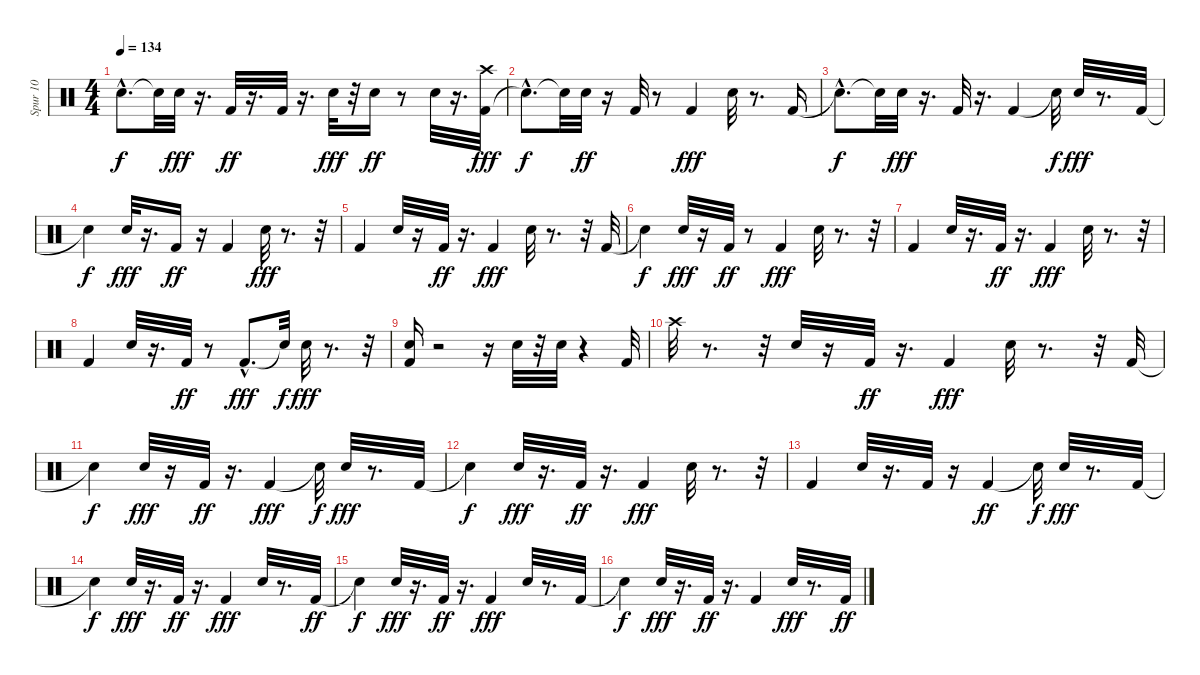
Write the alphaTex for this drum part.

\track ("Spur 10" "Spur 10") {instrument percussion}
\staff {score}
\articulation defaults
\ts (4 4)
\tempo 134
\clef neutral
\ks c "Snare (hit)"{hac t}.8{d dy f} "Snare (hit)"{t}.32 "Electric Snare (hit)".32{dy fff}
r.16{d} "Kick (hit) 2".32{dy ff} r.16{d} "Kick (hit) 2".32 r.16{d} "Electric Snare (hit)".32{dy fff} r.32 "Electric Snare (hit)".16{dy ff} r.8 "Electric Snare (hit)".32 r.16{d} ("Kick (hit) 2" "Crash high (hit)").32{dy fff} |
"Snare (hit)"{hac t}.8{d dy f} "Snare (hit)"{t}.32 "Electric Snare (hit)".32{dy ff} r.16 "Kick (hit) 2".32 r.8 "Kick (hit) 2".4{dy fff} "Electric Snare (hit)".32 r.8{d} "Kick (hit) 2".16 |
"Snare (hit)"{hac t}.8{d dy f} "Snare (hit)"{t}.32 "Electric Snare (hit)".32{dy fff} r.16{d} "Kick (hit) 2".32 r.16{d} "Kick (hit) 2".4 "Snare (hit)"{t}.32{dy f} "Electric Snare (hit)".32{dy fff} r.8{d} "Kick (hit) 2".32 |
"Snare (hit)"{t}.4{dy f} "Electric Snare (hit)".32{dy fff} r.16{d} "Kick (hit) 2".16{dy ff} r.16 "Kick (hit) 2".4 "Electric Snare (hit)".32{dy fff} r.8{d} r.32 |
"Kick (hit) 2".4 "Electric Snare (hit)".32 r.16 "Kick (hit) 2".32{dy ff} r.16{d} "Kick (hit) 2".4{dy fff} "Electric Snare (hit)".32 r.8{d} r.32 "Kick (hit) 2".32 |
"Snare (hit)"{t}.4{dy f} "Electric Snare (hit)".32{dy fff} r.16 "Kick (hit) 2".32{dy ff} r.8 "Kick (hit) 2".4{dy fff} "Electric Snare (hit)".32 r.8{d} r.32 |
"Kick (hit) 2".4 "Electric Snare (hit)".32 r.16{d} "Kick (hit) 2".32{dy ff} r.16{d} "Kick (hit) 2".4{dy fff} "Electric Snare (hit)".32 r.8{d} r.32 |
"Kick (hit) 2".4 "Electric Snare (hit)".32 r.16{d} "Kick (hit) 2".32{dy ff} r.8 "Kick (hit) 2"{hac}.8{d dy fff} "Snare (hit)"{t}.32{dy f} "Electric Snare (hit)".32{dy fff} r.8{d} r.32 |
("Kick (hit) 2" "Electric Snare (hit)").16 r.2 r.16 "Electric Snare (hit)".32 r.32 "Electric Snare (hit)".32 r.4 "Kick (hit) 2".32 |
"Crash high (hit)".32 r.8{d} r.32 "Electric Snare (hit)".32 r.16 "Kick (hit) 2".32{dy ff} r.16{d} "Kick (hit) 2".4{dy fff} "Electric Snare (hit)".32 r.8{d} r.32 "Kick (hit) 2".32 |
"Snare (hit)"{t}.4{dy f} "Electric Snare (hit)".32{dy fff} r.16 "Kick (hit) 2".32{dy ff} r.16{d} "Kick (hit) 2".4{dy fff} "Snare (hit)"{t}.32{dy f} "Electric Snare (hit)".32{dy fff} r.8{d} "Kick (hit) 2".32 |
"Snare (hit)"{t}.4{dy f} "Electric Snare (hit)".32{dy fff} r.16{d} "Kick (hit) 2".32{dy ff} r.16{d} "Kick (hit) 2".4{dy fff} "Electric Snare (hit)".32 r.8{d} r.32 |
"Kick (hit) 2".4 "Electric Snare (hit)".32 r.16{d} "Kick (hit) 2".32 r.16 "Kick (hit) 2".4{dy ff} "Snare (hit)"{t}.32{dy f} "Electric Snare (hit)".32{dy fff} r.8{d} "Kick (hit) 2".32 |
"Snare (hit)"{t}.4{dy f} "Electric Snare (hit)".32{dy fff} r.16{d} "Kick (hit) 2".32{dy ff} r.16{d} "Kick (hit) 2".4{dy fff} "Electric Snare (hit)".32 r.8{d} "Kick (hit) 2".32{dy ff} |
"Snare (hit)"{t}.4{dy f} "Electric Snare (hit)".32{dy fff} r.16{d} "Kick (hit) 2".32{dy ff} r.16{d} "Kick (hit) 2".4{dy fff} "Electric Snare (hit)".32 r.8{d} "Kick (hit) 2".32 |
"Snare (hit)"{t}.4{dy f} "Electric Snare (hit)".32{dy fff} r.16{d} "Kick (hit) 2".32{dy ff} r.16{d} "Kick (hit) 2".4 "Electric Snare (hit)".32{dy fff} r.8{d} "Kick (hit) 2".32{dy ff}
